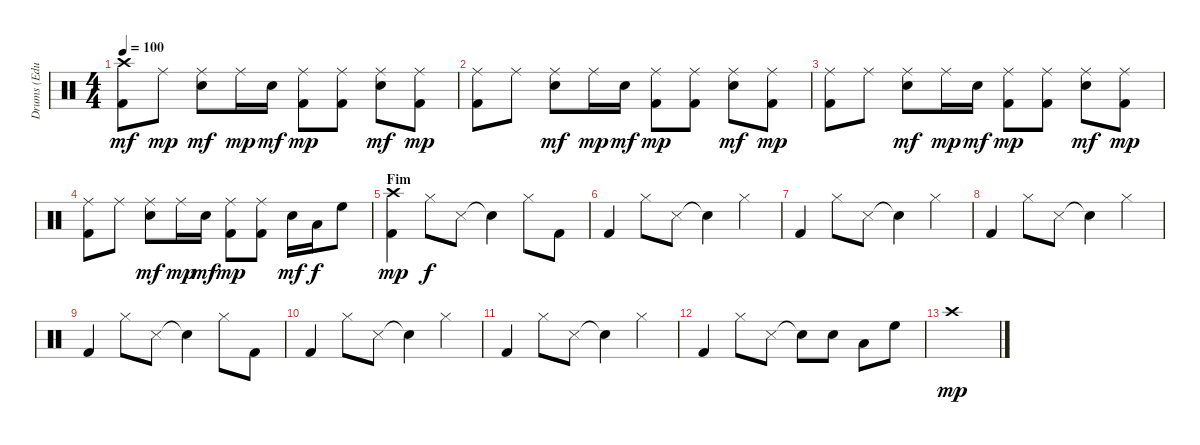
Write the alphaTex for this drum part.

\track ("Drums (Eduardo)" "Drums (Edu") {instrument percussion}
\staff {score}
\articulation defaults
\ts (4 4)
\tempo 100
\clef neutral
\ks c
("Crash high (hit)" "Kick (hit) 2").8{dy mf} "Ride (middle)".8{dy mp} ("Ride (middle)" "Electric Snare (hit)").8{dy mf} "Ride (middle)".16{dy mp} "Electric Snare (hit)".16{dy mf} ("Ride (middle)" "Kick (hit) 2").8{dy mp} ("Ride (middle)" "Kick (hit) 2").8 ("Ride (middle)" "Electric Snare (hit)").8{dy mf} ("Ride (middle)" "Kick (hit) 2").8{dy mp} |
("Ride (middle)" "Kick (hit) 2").8 "Ride (middle)".8 ("Ride (middle)" "Electric Snare (hit)").8{dy mf} "Ride (middle)".16{dy mp} "Electric Snare (hit)".16{dy mf} ("Ride (middle)" "Kick (hit) 2").8{dy mp} ("Ride (middle)" "Kick (hit) 2").8 ("Ride (middle)" "Electric Snare (hit)").8{dy mf} ("Ride (middle)" "Kick (hit) 2").8{dy mp} |
("Ride (middle)" "Kick (hit) 2").8 "Ride (middle)".8 ("Ride (middle)" "Electric Snare (hit)").8{dy mf} "Ride (middle)".16{dy mp} "Electric Snare (hit)".16{dy mf} ("Ride (middle)" "Kick (hit) 2").8{dy mp} ("Ride (middle)" "Kick (hit) 2").8 ("Ride (middle)" "Electric Snare (hit)").8{dy mf} ("Ride (middle)" "Kick (hit) 2").8{dy mp} |
("Ride (middle)" "Kick (hit) 2").8 "Ride (middle)".8 ("Ride (middle)" "Electric Snare (hit)").8{dy mf} "Ride (middle)".16{dy mp} "Electric Snare (hit)".16{dy mf} ("Ride (middle)" "Kick (hit) 2").8{dy mp} ("Ride (middle)" "Kick (hit) 2").8 "Electric Snare (hit)".16{dy mf} "Low Tom (hit)".16{dy f} "High Floor Tom (hit)".8 |
\section ("" "Fim")
("Crash high (hit)" "Kick (hit) 2").4{dy mp} "Hi-Hat (closed)".8{dy f} "Snare (side stick) 3".8 "Snare (hit)"{t}.4 "Hi-Hat (closed)".8 "Kick (hit) 2".8 |
"Kick (hit) 2".4 "Hi-Hat (closed)".8 "Snare (side stick) 3".8 "Snare (hit)"{t}.4 "Hi-Hat (closed)".4 |
"Kick (hit) 2".4 "Hi-Hat (closed)".8 "Snare (side stick) 3".8 "Snare (hit)"{t}.4 "Hi-Hat (closed)".4 |
"Kick (hit) 2".4 "Hi-Hat (closed)".8 "Snare (side stick) 3".8 "Snare (hit)"{t}.4 "Hi-Hat (closed)".4 |
"Kick (hit) 2".4 "Hi-Hat (closed)".8 "Snare (side stick) 3".8 "Snare (hit)"{t}.4 "Hi-Hat (closed)".8 "Kick (hit) 2".8 |
"Kick (hit) 2".4 "Hi-Hat (closed)".8 "Snare (side stick) 3".8 "Snare (hit)"{t}.4 "Hi-Hat (closed)".4 |
"Kick (hit) 2".4 "Hi-Hat (closed)".8 "Snare (side stick) 3".8 "Snare (hit)"{t}.4 "Hi-Hat (closed)".4 |
"Kick (hit) 2".4 "Hi-Hat (closed)".8 "Snare (side stick) 3".8 "Snare (hit)"{t}.8 "Electric Snare (hit)".8 "Low Tom (hit)".8 "High Floor Tom (hit)".8 |
"Crash high (hit)".1{dy mp}
